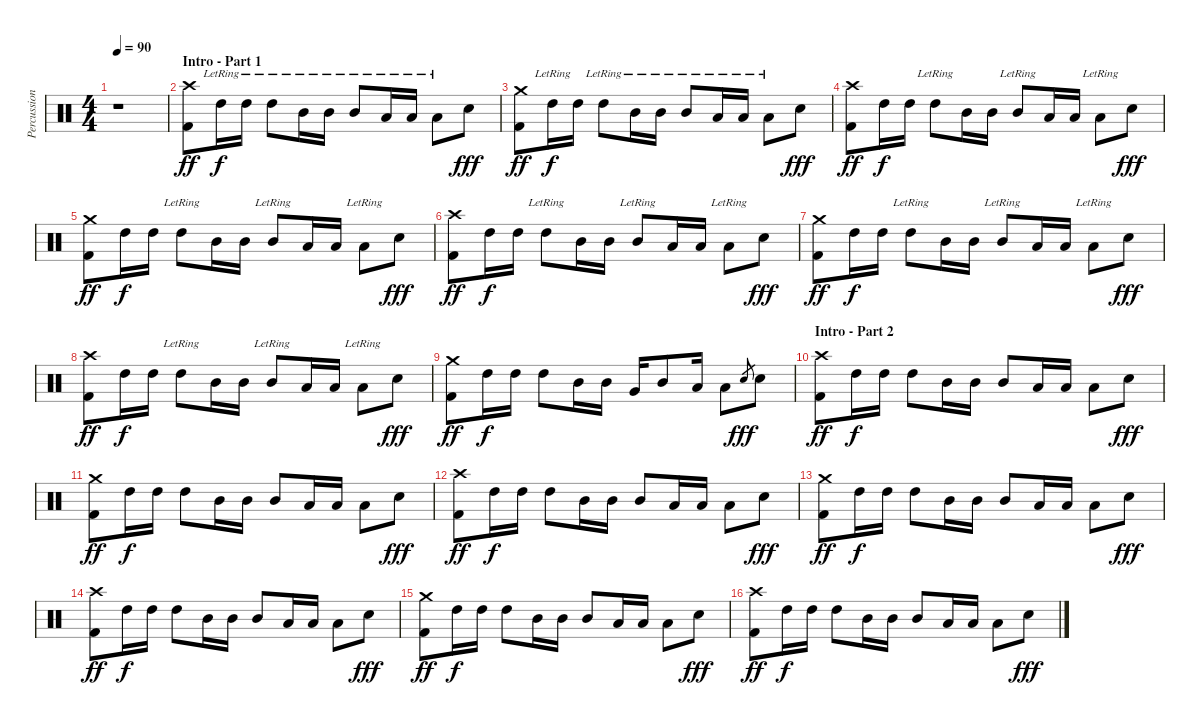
\track ("Percussion" "Percussion") {instrument percussion}
\staff {score}
\articulation defaults
\ts (4 4)
\tempo 90
\clef neutral
\ks c
r.1{dy ff} |
\section ("" "Intro - Part 1")
("Crash high (hit)" "Kick (hit) 2").8 "High Tom (hit)"{lr}.16{dy f} "High Tom (hit)"{lr}.16 "High Tom (hit)"{lr}.8 "Mid Tom (hit)"{lr}.16 "Mid Tom (hit)"{lr}.16 "Mid Tom (hit)"{lr}.8 "Low Tom (hit)"{lr}.16 "Low Tom (hit)"{lr}.16 "Low Tom (hit)"{lr}.8 "Electric Snare (hit)".8{dy fff} |
("Crash medium (hit)" "Kick (hit) 2").8{dy ff} "High Tom (hit)"{lr}.16{dy f} "High Tom (hit)".16 "High Tom (hit)"{lr}.8 "Mid Tom (hit)"{lr}.16 "Mid Tom (hit)"{lr}.16 "Mid Tom (hit)"{lr}.8 "Low Tom (hit)"{lr}.16 "Low Tom (hit)"{lr}.16 "Low Tom (hit)"{lr}.8 "Electric Snare (hit)".8{dy fff} |
("Crash high (hit)" "Kick (hit) 2").8{dy ff} "High Tom (hit)".16{dy f} "High Tom (hit)".16 "High Tom (hit)"{lr}.8 "Mid Tom (hit)".16 "Mid Tom (hit)".16 "Mid Tom (hit)"{lr}.8 "Low Tom (hit)".16 "Low Tom (hit)".16 "Low Tom (hit)"{lr}.8 "Electric Snare (hit)".8{dy fff} |
("Crash medium (hit)" "Kick (hit) 2").8{dy ff} "High Tom (hit)".16{dy f} "High Tom (hit)".16 "High Tom (hit)"{lr}.8 "Mid Tom (hit)".16 "Mid Tom (hit)".16 "Mid Tom (hit)"{lr}.8 "Low Tom (hit)".16 "Low Tom (hit)".16 "Low Tom (hit)"{lr}.8 "Electric Snare (hit)".8{dy fff} |
("Crash high (hit)" "Kick (hit) 2").8{dy ff} "High Tom (hit)".16{dy f} "High Tom (hit)".16 "High Tom (hit)"{lr}.8 "Mid Tom (hit)".16 "Mid Tom (hit)".16 "Mid Tom (hit)"{lr}.8 "Low Tom (hit)".16 "Low Tom (hit)".16 "Low Tom (hit)"{lr}.8 "Electric Snare (hit)".8{dy fff} |
("Crash medium (hit)" "Kick (hit) 2").8{dy ff} "High Tom (hit)".16{dy f} "High Tom (hit)".16 "High Tom (hit)"{lr}.8 "Mid Tom (hit)".16 "Mid Tom (hit)".16 "Mid Tom (hit)"{lr}.8 "Low Tom (hit)".16 "Low Tom (hit)".16 "Low Tom (hit)"{lr}.8 "Electric Snare (hit)".8{dy fff} |
("Crash high (hit)" "Kick (hit) 2").8{dy ff} "High Tom (hit)".16{dy f} "High Tom (hit)".16 "High Tom (hit)"{lr}.8 "Mid Tom (hit)".16 "Mid Tom (hit)".16 "Mid Tom (hit)"{lr}.8 "Low Tom (hit)".16 "Low Tom (hit)".16 "Low Tom (hit)"{lr}.8 "Electric Snare (hit)".8{dy fff} |
("Crash medium (hit)" "Kick (hit) 2").8{dy ff} "High Tom (hit)".16{dy f} "High Tom (hit)".16 "High Tom (hit)".8 "Mid Tom (hit)".16 "Mid Tom (hit)".16 "Very Low Tom (hit)".16 "Mid Tom (hit)".8 "Low Tom (hit)".16 "Low Tom (hit)".8 "Electric Snare (hit)".8{gr dy fff} "Electric Snare (hit)".8 |
\section ("" "Intro - Part 2")
("Crash high (hit)" "Kick (hit) 2").8{dy ff} "High Tom (hit)".16{dy f} "High Tom (hit)".16 "High Tom (hit)".8 "Mid Tom (hit)".16 "Mid Tom (hit)".16 "Mid Tom (hit)".8 "Low Tom (hit)".16 "Low Tom (hit)".16 "Low Tom (hit)".8 "Electric Snare (hit)".8{dy fff} |
("Crash medium (hit)" "Kick (hit) 2").8{dy ff} "High Tom (hit)".16{dy f} "High Tom (hit)".16 "High Tom (hit)".8 "Mid Tom (hit)".16 "Mid Tom (hit)".16 "Mid Tom (hit)".8 "Low Tom (hit)".16 "Low Tom (hit)".16 "Low Tom (hit)".8 "Electric Snare (hit)".8{dy fff} |
("Crash high (hit)" "Kick (hit) 2").8{dy ff} "High Tom (hit)".16{dy f} "High Tom (hit)".16 "High Tom (hit)".8 "Mid Tom (hit)".16 "Mid Tom (hit)".16 "Mid Tom (hit)".8 "Low Tom (hit)".16 "Low Tom (hit)".16 "Low Tom (hit)".8 "Electric Snare (hit)".8{dy fff} |
("Crash medium (hit)" "Kick (hit) 2").8{dy ff} "High Tom (hit)".16{dy f} "High Tom (hit)".16 "High Tom (hit)".8 "Mid Tom (hit)".16 "Mid Tom (hit)".16 "Mid Tom (hit)".8 "Low Tom (hit)".16 "Low Tom (hit)".16 "Low Tom (hit)".8 "Electric Snare (hit)".8{dy fff} |
("Crash high (hit)" "Kick (hit) 2").8{dy ff} "High Tom (hit)".16{dy f} "High Tom (hit)".16 "High Tom (hit)".8 "Mid Tom (hit)".16 "Mid Tom (hit)".16 "Mid Tom (hit)".8 "Low Tom (hit)".16 "Low Tom (hit)".16 "Low Tom (hit)".8 "Electric Snare (hit)".8{dy fff} |
("Crash medium (hit)" "Kick (hit) 2").8{dy ff} "High Tom (hit)".16{dy f} "High Tom (hit)".16 "High Tom (hit)".8 "Mid Tom (hit)".16 "Mid Tom (hit)".16 "Mid Tom (hit)".8 "Low Tom (hit)".16 "Low Tom (hit)".16 "Low Tom (hit)".8 "Electric Snare (hit)".8{dy fff} |
("Crash high (hit)" "Kick (hit) 2").8{dy ff} "High Tom (hit)".16{dy f} "High Tom (hit)".16 "High Tom (hit)".8 "Mid Tom (hit)".16 "Mid Tom (hit)".16 "Mid Tom (hit)".8 "Low Tom (hit)".16 "Low Tom (hit)".16 "Low Tom (hit)".8 "Electric Snare (hit)".8{dy fff}
